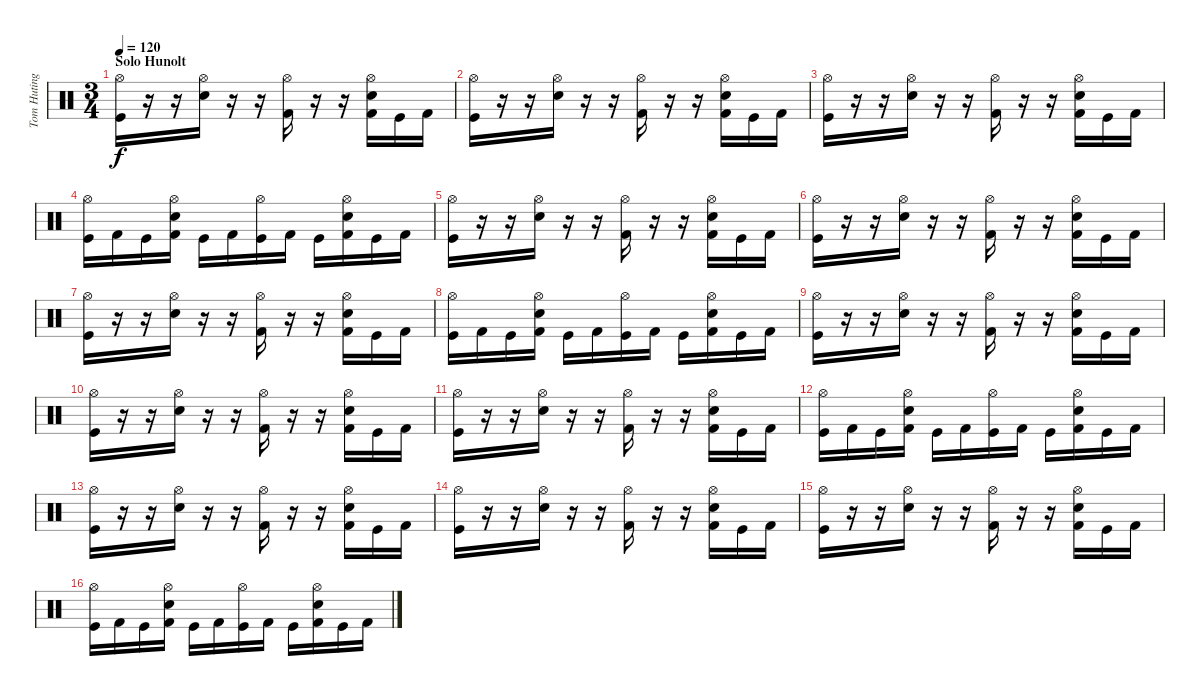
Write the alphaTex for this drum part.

\track ("Tom Huting" "Tom Huting") {instrument percussion}
\staff {score}
\articulation defaults
\ts (3 4)
\section ("" "Solo Hunolt")
\tempo 120
\clef neutral
\ks c
("Kick (hit)" "Hi-Hat (open)").16{dy f} r.16 r.16 ("Snare (hit) 2" "Hi-Hat (open)").16 r.16 r.16 ("Kick (hit) 2" "Hi-Hat (open)").16 r.16 r.16 ("Kick (hit) 2" "Snare (hit) 2" "Hi-Hat (open)").16 "Kick (hit)".16 "Kick (hit) 2".16 |
("Kick (hit)" "Hi-Hat (open)").16 r.16 r.16 ("Snare (hit) 2" "Hi-Hat (open)").16 r.16 r.16 ("Kick (hit) 2" "Hi-Hat (open)").16 r.16 r.16 ("Kick (hit) 2" "Snare (hit) 2" "Hi-Hat (open)").16 "Kick (hit)".16 "Kick (hit) 2".16 |
("Kick (hit)" "Hi-Hat (open)").16 r.16 r.16 ("Snare (hit) 2" "Hi-Hat (open)").16 r.16 r.16 ("Kick (hit) 2" "Hi-Hat (open)").16 r.16 r.16 ("Kick (hit) 2" "Snare (hit) 2" "Hi-Hat (open)").16 "Kick (hit)".16 "Kick (hit) 2".16 |
("Kick (hit)" "Hi-Hat (open)").16 "Kick (hit) 2".16 "Kick (hit)".16 ("Kick (hit) 2" "Snare (hit) 2" "Hi-Hat (open)").16 "Kick (hit)".16 "Kick (hit) 2".16 ("Kick (hit)" "Hi-Hat (open)").16 "Kick (hit) 2".16 "Kick (hit)".16 ("Kick (hit) 2" "Snare (hit) 2" "Hi-Hat (open)").16 "Kick (hit)".16 "Kick (hit) 2".16 |
("Kick (hit)" "Hi-Hat (open)").16 r.16 r.16 ("Snare (hit) 2" "Hi-Hat (open)").16 r.16 r.16 ("Kick (hit) 2" "Hi-Hat (open)").16 r.16 r.16 ("Kick (hit) 2" "Snare (hit) 2" "Hi-Hat (open)").16 "Kick (hit)".16 "Kick (hit) 2".16 |
("Kick (hit)" "Hi-Hat (open)").16 r.16 r.16 ("Snare (hit) 2" "Hi-Hat (open)").16 r.16 r.16 ("Kick (hit) 2" "Hi-Hat (open)").16 r.16 r.16 ("Kick (hit) 2" "Snare (hit) 2" "Hi-Hat (open)").16 "Kick (hit)".16 "Kick (hit) 2".16 |
("Kick (hit)" "Hi-Hat (open)").16 r.16 r.16 ("Snare (hit) 2" "Hi-Hat (open)").16 r.16 r.16 ("Kick (hit) 2" "Hi-Hat (open)").16 r.16 r.16 ("Kick (hit) 2" "Snare (hit) 2" "Hi-Hat (open)").16 "Kick (hit)".16 "Kick (hit) 2".16 |
("Kick (hit)" "Hi-Hat (open)").16 "Kick (hit) 2".16 "Kick (hit)".16 ("Kick (hit) 2" "Snare (hit) 2" "Hi-Hat (open)").16 "Kick (hit)".16 "Kick (hit) 2".16 ("Kick (hit)" "Hi-Hat (open)").16 "Kick (hit) 2".16 "Kick (hit)".16 ("Kick (hit) 2" "Snare (hit) 2" "Hi-Hat (open)").16 "Kick (hit)".16 "Kick (hit) 2".16 |
("Kick (hit)" "Hi-Hat (open)").16 r.16 r.16 ("Snare (hit) 2" "Hi-Hat (open)").16 r.16 r.16 ("Kick (hit) 2" "Hi-Hat (open)").16 r.16 r.16 ("Kick (hit) 2" "Snare (hit) 2" "Hi-Hat (open)").16 "Kick (hit)".16 "Kick (hit) 2".16 |
("Kick (hit)" "Hi-Hat (open)").16 r.16 r.16 ("Snare (hit) 2" "Hi-Hat (open)").16 r.16 r.16 ("Kick (hit) 2" "Hi-Hat (open)").16 r.16 r.16 ("Kick (hit) 2" "Snare (hit) 2" "Hi-Hat (open)").16 "Kick (hit)".16 "Kick (hit) 2".16 |
("Kick (hit)" "Hi-Hat (open)").16 r.16 r.16 ("Snare (hit) 2" "Hi-Hat (open)").16 r.16 r.16 ("Kick (hit) 2" "Hi-Hat (open)").16 r.16 r.16 ("Kick (hit) 2" "Snare (hit) 2" "Hi-Hat (open)").16 "Kick (hit)".16 "Kick (hit) 2".16 |
("Kick (hit)" "Hi-Hat (open)").16 "Kick (hit) 2".16 "Kick (hit)".16 ("Kick (hit) 2" "Snare (hit) 2" "Hi-Hat (open)").16 "Kick (hit)".16 "Kick (hit) 2".16 ("Kick (hit)" "Hi-Hat (open)").16 "Kick (hit) 2".16 "Kick (hit)".16 ("Kick (hit) 2" "Snare (hit) 2" "Hi-Hat (open)").16 "Kick (hit)".16 "Kick (hit) 2".16 |
("Kick (hit)" "Hi-Hat (open)").16 r.16 r.16 ("Snare (hit) 2" "Hi-Hat (open)").16 r.16 r.16 ("Kick (hit) 2" "Hi-Hat (open)").16 r.16 r.16 ("Kick (hit) 2" "Snare (hit) 2" "Hi-Hat (open)").16 "Kick (hit)".16 "Kick (hit) 2".16 |
("Kick (hit)" "Hi-Hat (open)").16 r.16 r.16 ("Snare (hit) 2" "Hi-Hat (open)").16 r.16 r.16 ("Kick (hit) 2" "Hi-Hat (open)").16 r.16 r.16 ("Kick (hit) 2" "Snare (hit) 2" "Hi-Hat (open)").16 "Kick (hit)".16 "Kick (hit) 2".16 |
("Kick (hit)" "Hi-Hat (open)").16 r.16 r.16 ("Snare (hit) 2" "Hi-Hat (open)").16 r.16 r.16 ("Kick (hit) 2" "Hi-Hat (open)").16 r.16 r.16 ("Kick (hit) 2" "Snare (hit) 2" "Hi-Hat (open)").16 "Kick (hit)".16 "Kick (hit) 2".16 |
("Kick (hit)" "Hi-Hat (open)").16 "Kick (hit) 2".16 "Kick (hit)".16 ("Kick (hit) 2" "Snare (hit) 2" "Hi-Hat (open)").16 "Kick (hit)".16 "Kick (hit) 2".16 ("Kick (hit)" "Hi-Hat (open)").16 "Kick (hit) 2".16 "Kick (hit)".16 ("Kick (hit) 2" "Snare (hit) 2" "Hi-Hat (open)").16 "Kick (hit)".16 "Kick (hit) 2".16
